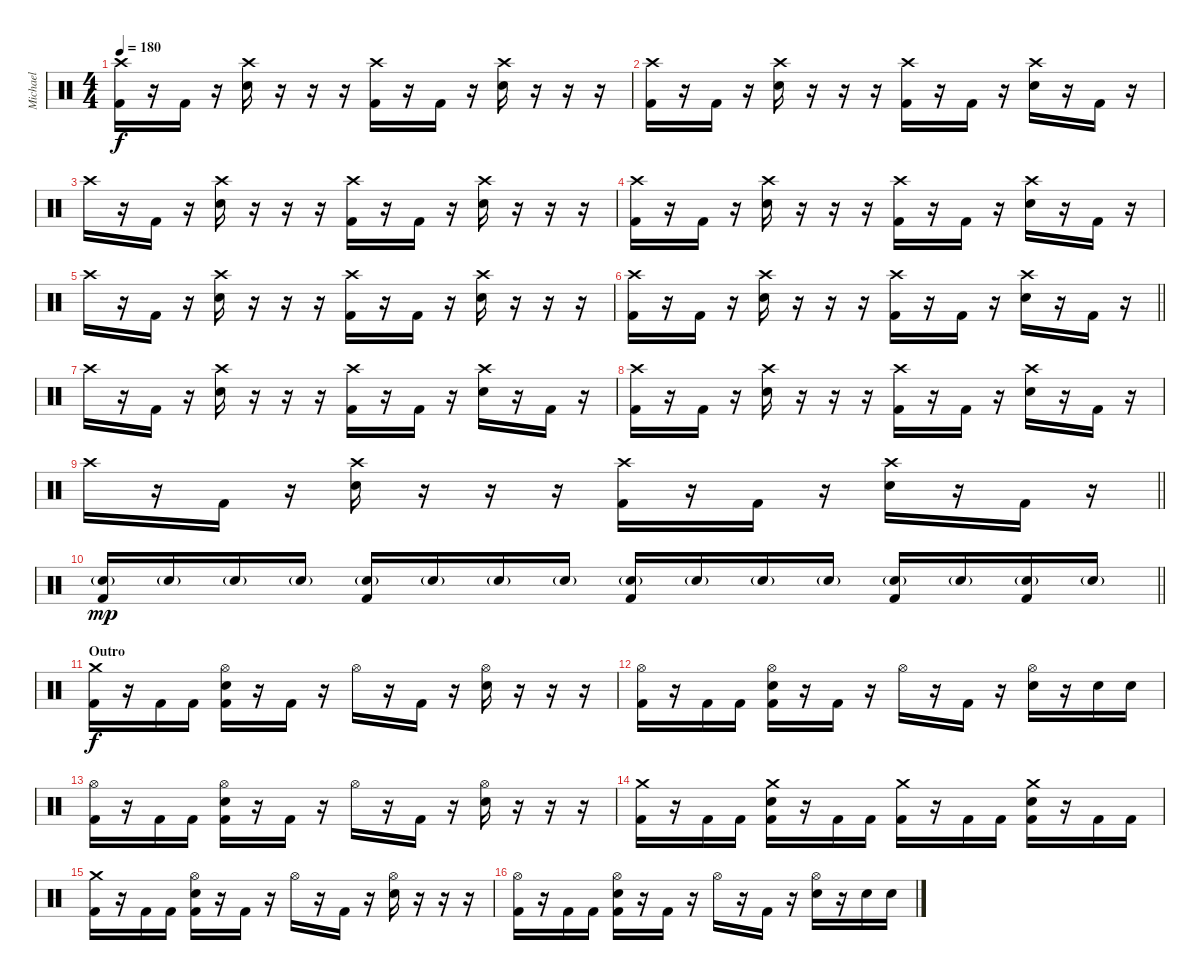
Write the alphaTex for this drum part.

\track ("Michael" "Michael") {instrument percussion}
\staff {score}
\articulation defaults
\ts (4 4)
\tempo 180
\clef neutral
\ks c
("Crash high (hit)" "Kick (hit) 2").16{dy f} r.16 "Kick (hit) 2".16 r.16 ("Crash high (hit)" "Electric Snare (hit)").16 r.16 r.16 r.16 ("Crash high (hit)" "Kick (hit) 2").16 r.16 "Kick (hit) 2".16 r.16 ("Crash high (hit)" "Electric Snare (hit)").16 r.16 r.16 r.16 |
("Crash high (hit)" "Kick (hit) 2").16 r.16 "Kick (hit) 2".16 r.16 ("Crash high (hit)" "Electric Snare (hit)").16 r.16 r.16 r.16 ("Crash high (hit)" "Kick (hit) 2").16 r.16 "Kick (hit) 2".16 r.16 ("Crash high (hit)" "Electric Snare (hit)").16 r.16 "Kick (hit) 2".16 r.16 |
"Crash high (hit)".16 r.16 "Kick (hit) 2".16 r.16 ("Crash high (hit)" "Electric Snare (hit)").16 r.16 r.16 r.16 ("Crash high (hit)" "Kick (hit) 2").16 r.16 "Kick (hit) 2".16 r.16 ("Crash high (hit)" "Electric Snare (hit)").16 r.16 r.16 r.16 |
("Crash high (hit)" "Kick (hit) 2").16 r.16 "Kick (hit) 2".16 r.16 ("Crash high (hit)" "Electric Snare (hit)").16 r.16 r.16 r.16 ("Crash high (hit)" "Kick (hit) 2").16 r.16 "Kick (hit) 2".16 r.16 ("Crash high (hit)" "Electric Snare (hit)").16 r.16 "Kick (hit) 2".16 r.16 |
"Crash high (hit)".16 r.16 "Kick (hit) 2".16 r.16 ("Crash high (hit)" "Electric Snare (hit)").16 r.16 r.16 r.16 ("Crash high (hit)" "Kick (hit) 2").16 r.16 "Kick (hit) 2".16 r.16 ("Crash high (hit)" "Electric Snare (hit)").16 r.16 r.16 r.16 |
\barLineRight lightlight
("Crash high (hit)" "Kick (hit) 2").16 r.16 "Kick (hit) 2".16 r.16 ("Crash high (hit)" "Electric Snare (hit)").16 r.16 r.16 r.16 ("Crash high (hit)" "Kick (hit) 2").16 r.16 "Kick (hit) 2".16 r.16 ("Crash high (hit)" "Electric Snare (hit)").16 r.16 "Kick (hit) 2".16 r.16 |
"Crash high (hit)".16 r.16 "Kick (hit) 2".16 r.16 ("Crash high (hit)" "Electric Snare (hit)").16 r.16 r.16 r.16 ("Crash high (hit)" "Kick (hit) 2").16 r.16 "Kick (hit) 2".16 r.16 ("Crash high (hit)" "Electric Snare (hit)").16 r.16 "Kick (hit) 2".16 r.16 |
("Crash high (hit)" "Kick (hit) 2").16 r.16 "Kick (hit) 2".16 r.16 ("Crash high (hit)" "Electric Snare (hit)").16 r.16 r.16 r.16 ("Crash high (hit)" "Kick (hit) 2").16 r.16 "Kick (hit) 2".16 r.16 ("Crash high (hit)" "Electric Snare (hit)").16 r.16 "Kick (hit) 2".16 r.16 |
\barLineRight lightlight "Crash high (hit)".16
r.16 "Kick (hit) 2".16 r.16 ("Crash high (hit)" "Electric Snare (hit)").16 r.16 r.16 r.16 ("Crash high (hit)" "Kick (hit) 2").16 r.16 "Kick (hit) 2".16 r.16 ("Crash high (hit)" "Electric Snare (hit)").16 r.16 "Kick (hit) 2".16 r.16 |
\barLineRight lightlight
("Electric Snare (hit)"{g} "Kick (hit) 2").16{dy mp} "Electric Snare (hit)"{g}.16 "Electric Snare (hit)"{g}.16 "Electric Snare (hit)"{g}.16 ("Electric Snare (hit)"{g} "Kick (hit) 2").16 "Electric Snare (hit)"{g}.16 "Electric Snare (hit)"{g}.16 "Electric Snare (hit)"{g}.16 ("Electric Snare (hit)"{g} "Kick (hit) 2").16 "Electric Snare (hit)"{g}.16 "Electric Snare (hit)"{g}.16 "Electric Snare (hit)"{g}.16 ("Electric Snare (hit)"{g} "Kick (hit) 2").16 "Electric Snare (hit)"{g}.16 ("Electric Snare (hit)"{g} "Kick (hit) 2").16 "Electric Snare (hit)"{g}.16 |
\section ("" "Outro")
("Crash medium (hit)" "Kick (hit) 2").16{dy f} r.16 "Kick (hit) 2".16 "Kick (hit) 2".16 ("Hi-Hat (open)" "Electric Snare (hit)" "Kick (hit) 2").16 r.16 "Kick (hit) 2".16 r.16 "Hi-Hat (open)".16 r.16 "Kick (hit) 2".16 r.16 ("Hi-Hat (open)" "Electric Snare (hit)").16 r.16 r.16 r.16 |
("Hi-Hat (open)" "Kick (hit) 2").16 r.16 "Kick (hit) 2".16 "Kick (hit) 2".16 ("Hi-Hat (open)" "Electric Snare (hit)" "Kick (hit) 2").16 r.16 "Kick (hit) 2".16 r.16 "Hi-Hat (open)".16 r.16 "Kick (hit) 2".16 r.16 ("Hi-Hat (open)" "Electric Snare (hit)").16 r.16 "Electric Snare (hit)".16 "Electric Snare (hit)".16 |
("Hi-Hat (open)" "Kick (hit) 2").16 r.16 "Kick (hit) 2".16 "Kick (hit) 2".16 ("Hi-Hat (open)" "Electric Snare (hit)" "Kick (hit) 2").16 r.16 "Kick (hit) 2".16 r.16 "Hi-Hat (open)".16 r.16 "Kick (hit) 2".16 r.16 ("Hi-Hat (open)" "Electric Snare (hit)").16 r.16 r.16 r.16 |
("Crash medium (hit)" "Kick (hit) 2").16 r.16 "Kick (hit) 2".16 "Kick (hit) 2".16 ("Crash medium (hit)" "Electric Snare (hit)" "Kick (hit) 2").16 r.16 "Kick (hit) 2".16 "Kick (hit) 2".16 ("Crash medium (hit)" "Kick (hit) 2").16 r.16 "Kick (hit) 2".16 "Kick (hit) 2".16 ("Crash medium (hit)" "Electric Snare (hit)" "Kick (hit) 2").16 r.16 "Kick (hit) 2".16 "Kick (hit) 2".16 |
("Crash medium (hit)" "Kick (hit) 2").16 r.16 "Kick (hit) 2".16 "Kick (hit) 2".16 ("Hi-Hat (open)" "Electric Snare (hit)" "Kick (hit) 2").16 r.16 "Kick (hit) 2".16 r.16 "Hi-Hat (open)".16 r.16 "Kick (hit) 2".16 r.16 ("Hi-Hat (open)" "Electric Snare (hit)").16 r.16 r.16 r.16 |
("Hi-Hat (open)" "Kick (hit) 2").16 r.16 "Kick (hit) 2".16 "Kick (hit) 2".16 ("Hi-Hat (open)" "Electric Snare (hit)" "Kick (hit) 2").16 r.16 "Kick (hit) 2".16 r.16 "Hi-Hat (open)".16 r.16 "Kick (hit) 2".16 r.16 ("Hi-Hat (open)" "Electric Snare (hit)").16 r.16 "Electric Snare (hit)".16 "Electric Snare (hit)".16
